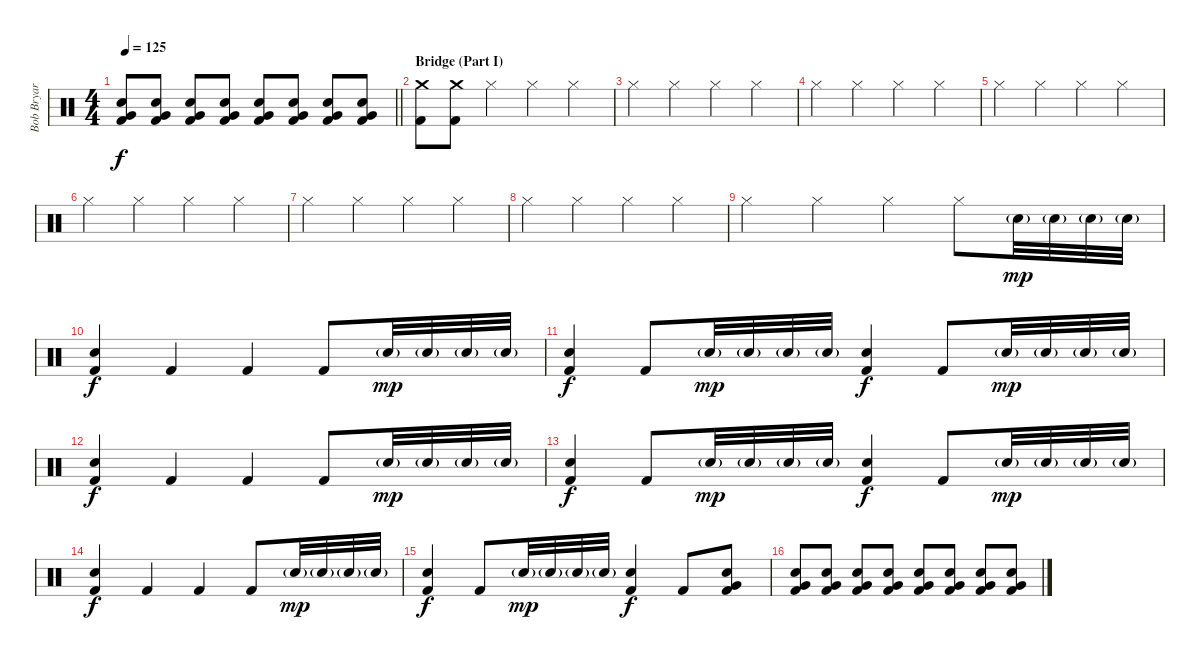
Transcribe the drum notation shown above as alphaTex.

\track ("Bob Bryar" "Bob Bryar") {instrument percussion}
\staff {score}
\articulation defaults
\ts (4 4)
\tempo 125
\clef neutral
\barLineRight lightlight
\ks c
("Electric Snare (hit)" "Very Low Tom (hit)" "Kick (hit) 2").8{dy f} ("Electric Snare (hit)" "Very Low Tom (hit)" "Kick (hit) 2").8 ("Electric Snare (hit)" "Very Low Tom (hit)" "Kick (hit) 2").8 ("Electric Snare (hit)" "Very Low Tom (hit)" "Kick (hit) 2").8 ("Electric Snare (hit)" "Very Low Tom (hit)" "Kick (hit) 2").8 ("Electric Snare (hit)" "Very Low Tom (hit)" "Kick (hit) 2").8 ("Electric Snare (hit)" "Very Low Tom (hit)" "Kick (hit) 2").8 ("Electric Snare (hit)" "Very Low Tom (hit)" "Kick (hit) 2").8 |
\section ("" "Bridge (Part I)")
("Crash medium (hit)" "Kick (hit) 2").8 ("Crash medium (hit)" "Kick (hit) 2").8 "Hi-Hat (closed)".4 "Hi-Hat (closed)".4 "Hi-Hat (closed)".4 |
"Hi-Hat (closed)".4 "Hi-Hat (closed)".4 "Hi-Hat (closed)".4 "Hi-Hat (closed)".4 |
"Hi-Hat (closed)".4 "Hi-Hat (closed)".4 "Hi-Hat (closed)".4 "Hi-Hat (closed)".4 |
"Hi-Hat (closed)".4 "Hi-Hat (closed)".4 "Hi-Hat (closed)".4 "Hi-Hat (closed)".4 |
"Hi-Hat (closed)".4 "Hi-Hat (closed)".4 "Hi-Hat (closed)".4 "Hi-Hat (closed)".4 |
"Hi-Hat (closed)".4 "Hi-Hat (closed)".4 "Hi-Hat (closed)".4 "Hi-Hat (closed)".4 |
"Hi-Hat (closed)".4 "Hi-Hat (closed)".4 "Hi-Hat (closed)".4 "Hi-Hat (closed)".4 |
"Hi-Hat (closed)".4 "Hi-Hat (closed)".4 "Hi-Hat (closed)".4 "Hi-Hat (closed)".8 "Electric Snare (hit)"{g}.32{dy mp} "Electric Snare (hit)"{g}.32 "Electric Snare (hit)"{g}.32 "Electric Snare (hit)"{g}.32 |
("Electric Snare (hit)" "Kick (hit) 2").4{dy f} "Kick (hit) 2".4 "Kick (hit) 2".4 "Kick (hit) 2".8 "Electric Snare (hit)"{g}.32{dy mp} "Electric Snare (hit)"{g}.32 "Electric Snare (hit)"{g}.32 "Electric Snare (hit)"{g}.32 |
("Electric Snare (hit)" "Kick (hit) 2").4{dy f} "Kick (hit) 2".8 "Electric Snare (hit)"{g}.32{dy mp} "Electric Snare (hit)"{g}.32 "Electric Snare (hit)"{g}.32 "Electric Snare (hit)"{g}.32 ("Electric Snare (hit)" "Kick (hit) 2").4{dy f} "Kick (hit) 2".8 "Electric Snare (hit)"{g}.32{dy mp} "Electric Snare (hit)"{g}.32 "Electric Snare (hit)"{g}.32 "Electric Snare (hit)"{g}.32 |
("Electric Snare (hit)" "Kick (hit) 2").4{dy f} "Kick (hit) 2".4 "Kick (hit) 2".4 "Kick (hit) 2".8 "Electric Snare (hit)"{g}.32{dy mp} "Electric Snare (hit)"{g}.32 "Electric Snare (hit)"{g}.32 "Electric Snare (hit)"{g}.32 |
("Electric Snare (hit)" "Kick (hit) 2").4{dy f} "Kick (hit) 2".8 "Electric Snare (hit)"{g}.32{dy mp} "Electric Snare (hit)"{g}.32 "Electric Snare (hit)"{g}.32 "Electric Snare (hit)"{g}.32 ("Electric Snare (hit)" "Kick (hit) 2").4{dy f} "Kick (hit) 2".8 "Electric Snare (hit)"{g}.32{dy mp} "Electric Snare (hit)"{g}.32 "Electric Snare (hit)"{g}.32 "Electric Snare (hit)"{g}.32 |
("Electric Snare (hit)" "Kick (hit) 2").4{dy f} "Kick (hit) 2".4 "Kick (hit) 2".4 "Kick (hit) 2".8 "Electric Snare (hit)"{g}.32{dy mp} "Electric Snare (hit)"{g}.32 "Electric Snare (hit)"{g}.32 "Electric Snare (hit)"{g}.32 |
("Electric Snare (hit)" "Kick (hit) 2").4{dy f} "Kick (hit) 2".8 "Electric Snare (hit)"{g}.32{dy mp} "Electric Snare (hit)"{g}.32 "Electric Snare (hit)"{g}.32 "Electric Snare (hit)"{g}.32 ("Electric Snare (hit)" "Kick (hit) 2").4{dy f} "Kick (hit) 2".8 ("Electric Snare (hit)" "Very Low Tom (hit)" "Kick (hit) 2").8 |
("Electric Snare (hit)" "Very Low Tom (hit)" "Kick (hit) 2").8 ("Electric Snare (hit)" "Very Low Tom (hit)" "Kick (hit) 2").8 ("Electric Snare (hit)" "Very Low Tom (hit)" "Kick (hit) 2").8 ("Electric Snare (hit)" "Very Low Tom (hit)" "Kick (hit) 2").8 ("Electric Snare (hit)" "Very Low Tom (hit)" "Kick (hit) 2").8 ("Electric Snare (hit)" "Very Low Tom (hit)" "Kick (hit) 2").8 ("Electric Snare (hit)" "Very Low Tom (hit)" "Kick (hit) 2").8 ("Electric Snare (hit)" "Very Low Tom (hit)" "Kick (hit) 2").8
